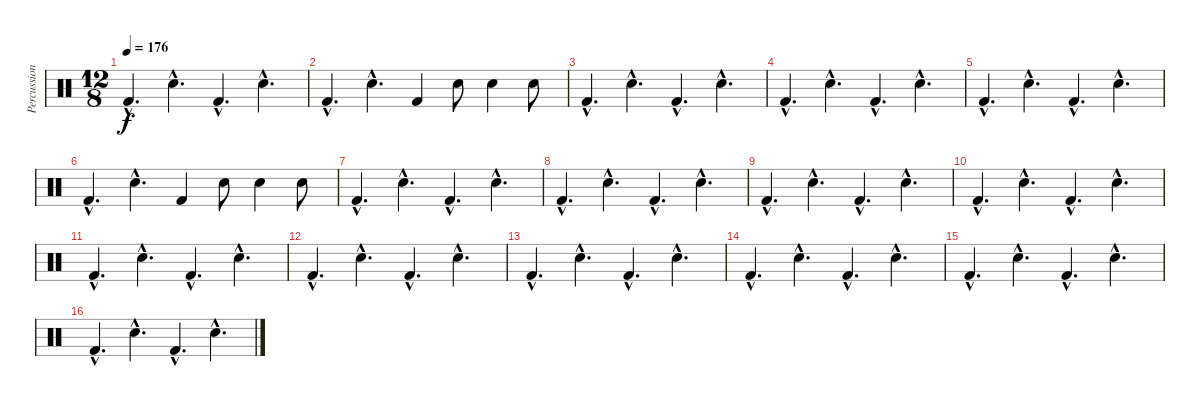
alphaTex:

\track ("Percussion" "Percussion") {instrument percussion}
\staff {score}
\articulation defaults
\ts (12 8)
\tempo 176
\clef neutral
\ks c "Kick (hit) 2"{hac}.4{d dy f} "Snare (hit) 2"{hac}.4{d} "Kick (hit) 2"{hac}.4{d} "Snare (hit) 2"{hac}.4{d}
|
"Kick (hit) 2"{hac}.4{d} "Snare (hit) 2"{hac}.4{d} "Kick (hit) 2".4 "Snare (hit) 2".8 "Snare (hit) 2".4 "Snare (hit) 2".8 |
"Kick (hit) 2"{hac}.4{d} "Snare (hit) 2"{hac}.4{d} "Kick (hit) 2"{hac}.4{d} "Snare (hit) 2"{hac}.4{d} |
"Kick (hit) 2"{hac}.4{d} "Snare (hit) 2"{hac}.4{d} "Kick (hit) 2"{hac}.4{d} "Snare (hit) 2"{hac}.4{d} |
"Kick (hit) 2"{hac}.4{d} "Snare (hit) 2"{hac}.4{d} "Kick (hit) 2"{hac}.4{d} "Snare (hit) 2"{hac}.4{d} |
"Kick (hit) 2"{hac}.4{d} "Snare (hit) 2"{hac}.4{d} "Kick (hit) 2".4 "Snare (hit) 2".8 "Snare (hit) 2".4 "Snare (hit) 2".8 |
"Kick (hit) 2"{hac}.4{d} "Snare (hit) 2"{hac}.4{d} "Kick (hit) 2"{hac}.4{d} "Snare (hit) 2"{hac}.4{d} |
"Kick (hit) 2"{hac}.4{d} "Snare (hit) 2"{hac}.4{d} "Kick (hit) 2"{hac}.4{d} "Snare (hit) 2"{hac}.4{d} |
"Kick (hit) 2"{hac}.4{d} "Snare (hit) 2"{hac}.4{d} "Kick (hit) 2"{hac}.4{d} "Snare (hit) 2"{hac}.4{d} |
"Kick (hit) 2"{hac}.4{d} "Snare (hit) 2"{hac}.4{d} "Kick (hit) 2"{hac}.4{d} "Snare (hit) 2"{hac}.4{d} |
"Kick (hit) 2"{hac}.4{d} "Snare (hit) 2"{hac}.4{d} "Kick (hit) 2"{hac}.4{d} "Snare (hit) 2"{hac}.4{d} |
"Kick (hit) 2"{hac}.4{d} "Snare (hit) 2"{hac}.4{d} "Kick (hit) 2"{hac}.4{d} "Snare (hit) 2"{hac}.4{d} |
"Kick (hit) 2"{hac}.4{d} "Snare (hit) 2"{hac}.4{d} "Kick (hit) 2"{hac}.4{d} "Snare (hit) 2"{hac}.4{d} |
"Kick (hit) 2"{hac}.4{d} "Snare (hit) 2"{hac}.4{d} "Kick (hit) 2"{hac}.4{d} "Snare (hit) 2"{hac}.4{d} |
"Kick (hit) 2"{hac}.4{d} "Snare (hit) 2"{hac}.4{d} "Kick (hit) 2"{hac}.4{d} "Snare (hit) 2"{hac}.4{d} |
"Kick (hit) 2"{hac}.4{d} "Snare (hit) 2"{hac}.4{d} "Kick (hit) 2"{hac}.4{d} "Snare (hit) 2"{hac}.4{d}
